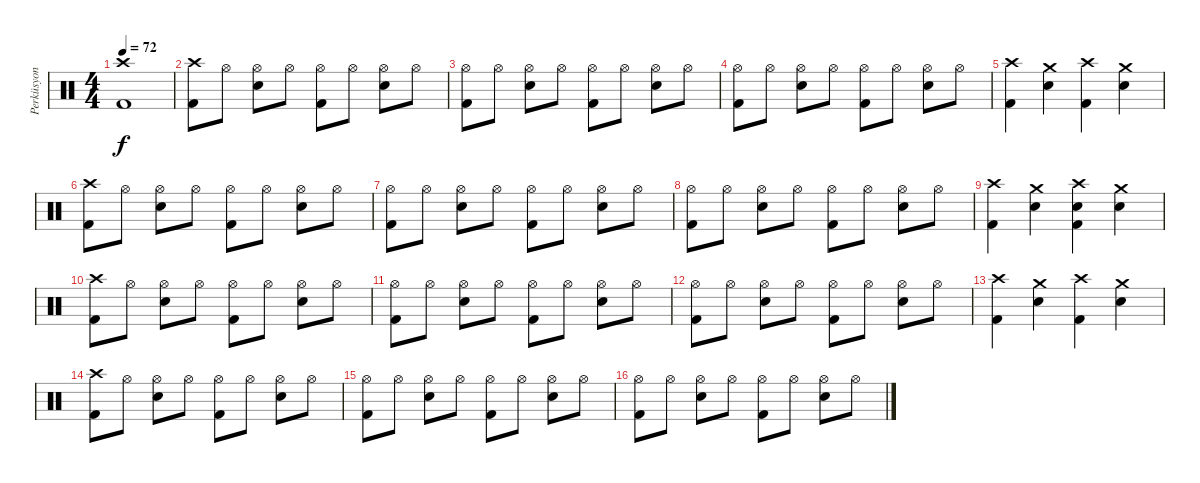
\track ("Perküsyon" "Perküsyon") {instrument percussion}
\staff {score}
\articulation defaults
\ts (4 4)
\tempo 72
\clef neutral
\ks c
("Crash high (hit)" "Kick (hit) 2").1{dy f} |
("Crash high (hit)" "Kick (hit) 2").8 "Hi-Hat (open)".8 ("Hi-Hat (open)" "Electric Snare (hit)").8 "Hi-Hat (open)".8 ("Hi-Hat (open)" "Kick (hit) 2").8 "Hi-Hat (open)".8 ("Hi-Hat (open)" "Electric Snare (hit)").8 "Hi-Hat (open)".8 |
("Hi-Hat (open)" "Kick (hit) 2").8 "Hi-Hat (open)".8 ("Hi-Hat (open)" "Electric Snare (hit)").8 "Hi-Hat (open)".8 ("Hi-Hat (open)" "Kick (hit) 2").8 "Hi-Hat (open)".8 ("Hi-Hat (open)" "Electric Snare (hit)").8 "Hi-Hat (open)".8 |
("Hi-Hat (open)" "Kick (hit) 2").8 "Hi-Hat (open)".8 ("Hi-Hat (open)" "Electric Snare (hit)").8 "Hi-Hat (open)".8 ("Hi-Hat (open)" "Kick (hit) 2").8 "Hi-Hat (open)".8 ("Hi-Hat (open)" "Electric Snare (hit)").8 "Hi-Hat (open)".8 |
("Crash high (hit)" "Kick (hit) 2").4 ("Crash medium (hit)" "Electric Snare (hit)").4 ("Crash high (hit)" "Kick (hit) 2").4 ("Crash medium (hit)" "Electric Snare (hit)").4 |
("Crash high (hit)" "Kick (hit) 2").8 "Hi-Hat (open)".8 ("Hi-Hat (open)" "Electric Snare (hit)").8 "Hi-Hat (open)".8 ("Hi-Hat (open)" "Kick (hit) 2").8 "Hi-Hat (open)".8 ("Hi-Hat (open)" "Electric Snare (hit)").8 "Hi-Hat (open)".8 |
("Hi-Hat (open)" "Kick (hit) 2").8 "Hi-Hat (open)".8 ("Hi-Hat (open)" "Electric Snare (hit)").8 "Hi-Hat (open)".8 ("Hi-Hat (open)" "Kick (hit) 2").8 "Hi-Hat (open)".8 ("Hi-Hat (open)" "Electric Snare (hit)").8 "Hi-Hat (open)".8 |
("Hi-Hat (open)" "Kick (hit) 2").8 "Hi-Hat (open)".8 ("Hi-Hat (open)" "Electric Snare (hit)").8 "Hi-Hat (open)".8 ("Hi-Hat (open)" "Kick (hit) 2").8 "Hi-Hat (open)".8 ("Hi-Hat (open)" "Electric Snare (hit)").8 "Hi-Hat (open)".8 |
("Crash high (hit)" "Kick (hit) 2").4 ("Crash medium (hit)" "Electric Snare (hit)").4 ("Crash high (hit)" "Electric Snare (hit)" "Kick (hit) 2").4 ("Crash medium (hit)" "Electric Snare (hit)").4 |
("Crash high (hit)" "Kick (hit) 2").8 "Hi-Hat (open)".8 ("Hi-Hat (open)" "Electric Snare (hit)").8 "Hi-Hat (open)".8 ("Hi-Hat (open)" "Kick (hit) 2").8 "Hi-Hat (open)".8 ("Hi-Hat (open)" "Electric Snare (hit)").8 "Hi-Hat (open)".8 |
("Hi-Hat (open)" "Kick (hit) 2").8 "Hi-Hat (open)".8 ("Hi-Hat (open)" "Electric Snare (hit)").8 "Hi-Hat (open)".8 ("Hi-Hat (open)" "Kick (hit) 2").8 "Hi-Hat (open)".8 ("Hi-Hat (open)" "Electric Snare (hit)").8 "Hi-Hat (open)".8 |
("Hi-Hat (open)" "Kick (hit) 2").8 "Hi-Hat (open)".8 ("Hi-Hat (open)" "Electric Snare (hit)").8 "Hi-Hat (open)".8 ("Hi-Hat (open)" "Kick (hit) 2").8 "Hi-Hat (open)".8 ("Hi-Hat (open)" "Electric Snare (hit)").8 "Hi-Hat (open)".8 |
("Crash high (hit)" "Kick (hit) 2").4 ("Crash medium (hit)" "Electric Snare (hit)").4 ("Crash high (hit)" "Kick (hit) 2").4 ("Crash medium (hit)" "Electric Snare (hit)").4 |
("Crash high (hit)" "Kick (hit) 2").8 "Hi-Hat (open)".8 ("Hi-Hat (open)" "Electric Snare (hit)").8 "Hi-Hat (open)".8 ("Hi-Hat (open)" "Kick (hit) 2").8 "Hi-Hat (open)".8 ("Hi-Hat (open)" "Electric Snare (hit)").8 "Hi-Hat (open)".8 |
("Hi-Hat (open)" "Kick (hit) 2").8 "Hi-Hat (open)".8 ("Hi-Hat (open)" "Electric Snare (hit)").8 "Hi-Hat (open)".8 ("Hi-Hat (open)" "Kick (hit) 2").8 "Hi-Hat (open)".8 ("Hi-Hat (open)" "Electric Snare (hit)").8 "Hi-Hat (open)".8 |
("Hi-Hat (open)" "Kick (hit) 2").8 "Hi-Hat (open)".8 ("Hi-Hat (open)" "Electric Snare (hit)").8 "Hi-Hat (open)".8 ("Hi-Hat (open)" "Kick (hit) 2").8 "Hi-Hat (open)".8 ("Hi-Hat (open)" "Electric Snare (hit)").8 "Hi-Hat (open)".8
